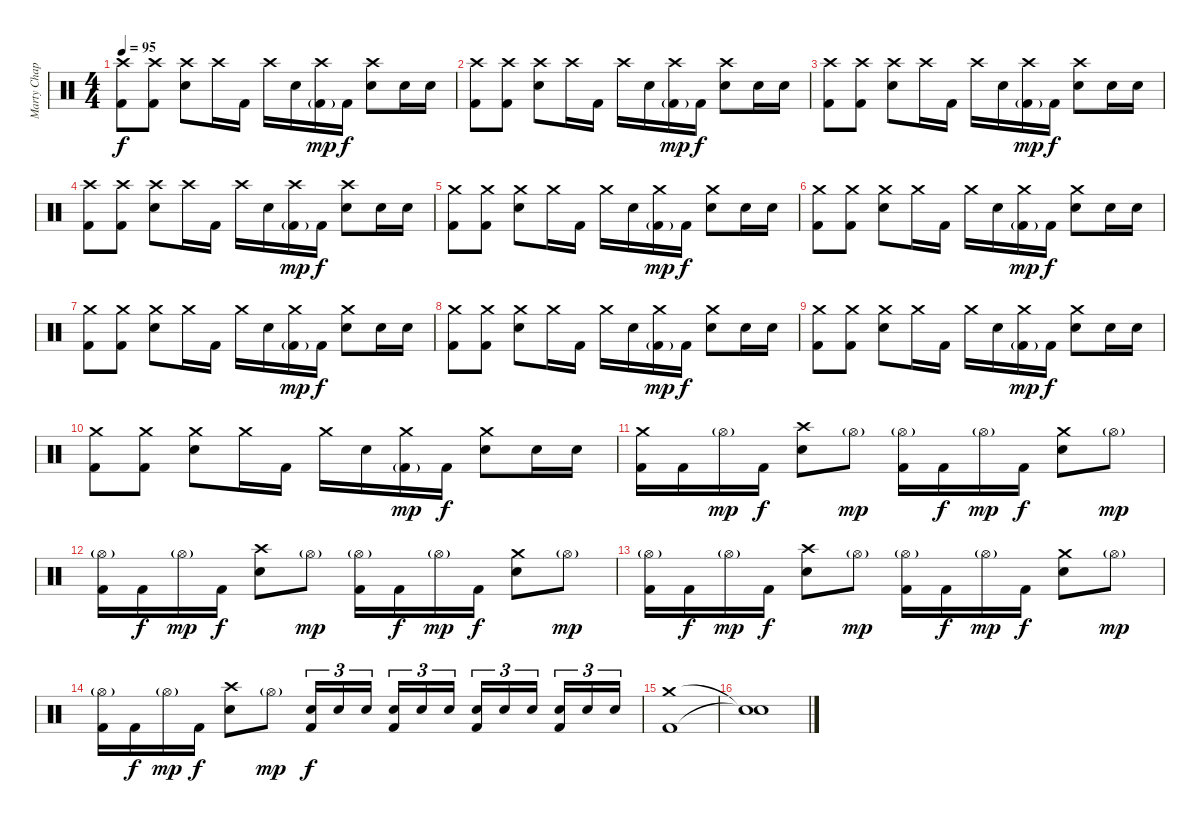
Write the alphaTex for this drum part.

\track ("Marty Chapman (Drums)" "Marty Chap") {instrument percussion}
\staff {score}
\articulation defaults
\ts (4 4)
\tempo 95
\clef neutral
\ks c
("Crash high (hit)" "Kick (hit) 2").8{dy f} ("Crash high (hit)" "Kick (hit) 2").8 ("Crash high (hit)" "Electric Snare (hit)").8 "Crash high (hit)".16 "Kick (hit) 2".16 "Crash high (hit)".16 "Electric Snare (hit)".16 ("Crash high (hit)" "Kick (hit) 2"{g}).16{dy mp} "Kick (hit) 2".16{dy f} ("Crash high (hit)" "Electric Snare (hit)").8 "Electric Snare (hit)".16 "Electric Snare (hit)".16 |
("Crash high (hit)" "Kick (hit) 2").8 ("Crash high (hit)" "Kick (hit) 2").8 ("Crash high (hit)" "Electric Snare (hit)").8 "Crash high (hit)".16 "Kick (hit) 2".16 "Crash high (hit)".16 "Electric Snare (hit)".16 ("Crash high (hit)" "Kick (hit) 2"{g}).16{dy mp} "Kick (hit) 2".16{dy f} ("Crash high (hit)" "Electric Snare (hit)").8 "Electric Snare (hit)".16 "Electric Snare (hit)".16 |
("Crash high (hit)" "Kick (hit) 2").8 ("Crash high (hit)" "Kick (hit) 2").8 ("Crash high (hit)" "Electric Snare (hit)").8 "Crash high (hit)".16 "Kick (hit) 2".16 "Crash high (hit)".16 "Electric Snare (hit)".16 ("Crash high (hit)" "Kick (hit) 2"{g}).16{dy mp} "Kick (hit) 2".16{dy f} ("Crash high (hit)" "Electric Snare (hit)").8 "Electric Snare (hit)".16 "Electric Snare (hit)".16 |
("Crash high (hit)" "Kick (hit) 2").8 ("Crash high (hit)" "Kick (hit) 2").8 ("Crash high (hit)" "Electric Snare (hit)").8 "Crash high (hit)".16 "Kick (hit) 2".16 "Crash high (hit)".16 "Electric Snare (hit)".16 ("Crash high (hit)" "Kick (hit) 2"{g}).16{dy mp} "Kick (hit) 2".16{dy f} ("Crash high (hit)" "Electric Snare (hit)").8 "Electric Snare (hit)".16 "Electric Snare (hit)".16 |
("Crash medium (hit)" "Kick (hit) 2").8 ("Crash medium (hit)" "Kick (hit) 2").8 ("Crash medium (hit)" "Electric Snare (hit)").8 "Crash medium (hit)".16 "Kick (hit) 2".16 "Crash medium (hit)".16 "Electric Snare (hit)".16 ("Crash medium (hit)" "Kick (hit) 2"{g}).16{dy mp} "Kick (hit) 2".16{dy f} ("Crash medium (hit)" "Electric Snare (hit)").8 "Electric Snare (hit)".16 "Electric Snare (hit)".16 |
("Crash medium (hit)" "Kick (hit) 2").8 ("Crash medium (hit)" "Kick (hit) 2").8 ("Crash medium (hit)" "Electric Snare (hit)").8 "Crash medium (hit)".16 "Kick (hit) 2".16 "Crash medium (hit)".16 "Electric Snare (hit)".16 ("Crash medium (hit)" "Kick (hit) 2"{g}).16{dy mp} "Kick (hit) 2".16{dy f} ("Crash medium (hit)" "Electric Snare (hit)").8 "Electric Snare (hit)".16 "Electric Snare (hit)".16 |
("Crash medium (hit)" "Kick (hit) 2").8 ("Crash medium (hit)" "Kick (hit) 2").8 ("Crash medium (hit)" "Electric Snare (hit)").8 "Crash medium (hit)".16 "Kick (hit) 2".16 "Crash medium (hit)".16 "Electric Snare (hit)".16 ("Crash medium (hit)" "Kick (hit) 2"{g}).16{dy mp} "Kick (hit) 2".16{dy f} ("Crash medium (hit)" "Electric Snare (hit)").8 "Electric Snare (hit)".16 "Electric Snare (hit)".16 |
("Crash medium (hit)" "Kick (hit) 2").8 ("Crash medium (hit)" "Kick (hit) 2").8 ("Crash medium (hit)" "Electric Snare (hit)").8 "Crash medium (hit)".16 "Kick (hit) 2".16 "Crash medium (hit)".16 "Electric Snare (hit)".16 ("Crash medium (hit)" "Kick (hit) 2"{g}).16{dy mp} "Kick (hit) 2".16{dy f} ("Crash medium (hit)" "Electric Snare (hit)").8 "Electric Snare (hit)".16 "Electric Snare (hit)".16 |
("Crash medium (hit)" "Kick (hit) 2").8 ("Crash medium (hit)" "Kick (hit) 2").8 ("Crash medium (hit)" "Electric Snare (hit)").8 "Crash medium (hit)".16 "Kick (hit) 2".16 "Crash medium (hit)".16 "Electric Snare (hit)".16 ("Crash medium (hit)" "Kick (hit) 2"{g}).16{dy mp} "Kick (hit) 2".16{dy f} ("Crash medium (hit)" "Electric Snare (hit)").8 "Electric Snare (hit)".16 "Electric Snare (hit)".16 |
("Crash medium (hit)" "Kick (hit) 2").8 ("Crash medium (hit)" "Kick (hit) 2").8 ("Crash medium (hit)" "Electric Snare (hit)").8 "Crash medium (hit)".16 "Kick (hit) 2".16 "Crash medium (hit)".16 "Electric Snare (hit)".16 ("Crash medium (hit)" "Kick (hit) 2"{g}).16{dy mp} "Kick (hit) 2".16{dy f} ("Crash medium (hit)" "Electric Snare (hit)").8 "Electric Snare (hit)".16 "Electric Snare (hit)".16 |
("Crash medium (hit)" "Kick (hit) 2").16 "Kick (hit) 2".16 "Hi-Hat (open)"{g}.16{dy mp} "Kick (hit) 2".16{dy f} ("Crash high (hit)" "Electric Snare (hit)").8 "Hi-Hat (open)"{g}.8{dy mp} ("Hi-Hat (open)"{g} "Kick (hit) 2").16 "Kick (hit) 2".16{dy f} "Hi-Hat (open)"{g}.16{dy mp} "Kick (hit) 2".16{dy f} ("Crash medium (hit)" "Electric Snare (hit)").8 "Hi-Hat (open)"{g}.8{dy mp} |
("Hi-Hat (open)"{g} "Kick (hit) 2").16 "Kick (hit) 2".16{dy f} "Hi-Hat (open)"{g}.16{dy mp} "Kick (hit) 2".16{dy f} ("Crash high (hit)" "Electric Snare (hit)").8 "Hi-Hat (open)"{g}.8{dy mp} ("Hi-Hat (open)"{g} "Kick (hit) 2").16 "Kick (hit) 2".16{dy f} "Hi-Hat (open)"{g}.16{dy mp} "Kick (hit) 2".16{dy f} ("Crash medium (hit)" "Electric Snare (hit)").8 "Hi-Hat (open)"{g}.8{dy mp} |
("Hi-Hat (open)"{g} "Kick (hit) 2").16 "Kick (hit) 2".16{dy f} "Hi-Hat (open)"{g}.16{dy mp} "Kick (hit) 2".16{dy f} ("Crash high (hit)" "Electric Snare (hit)").8 "Hi-Hat (open)"{g}.8{dy mp} ("Hi-Hat (open)"{g} "Kick (hit) 2").16 "Kick (hit) 2".16{dy f} "Hi-Hat (open)"{g}.16{dy mp} "Kick (hit) 2".16{dy f} ("Crash medium (hit)" "Electric Snare (hit)").8 "Hi-Hat (open)"{g}.8{dy mp} |
("Hi-Hat (open)"{g} "Kick (hit) 2").16 "Kick (hit) 2".16{dy f} "Hi-Hat (open)"{g}.16{dy mp} "Kick (hit) 2".16{dy f} ("Crash high (hit)" "Electric Snare (hit)").8 "Hi-Hat (open)"{g}.8{dy mp} ("Electric Snare (hit)" "Kick (hit) 2").16{tu (3 2) dy f} "Electric Snare (hit)".16{tu (3 2)} "Electric Snare (hit)".16{tu (3 2) beam splitsecondary} ("Electric Snare (hit)" "Kick (hit) 2").16{tu (3 2)} "Electric Snare (hit)".16{tu (3 2)} "Electric Snare (hit)".16{tu (3 2)} ("Electric Snare (hit)" "Kick (hit) 2").16{tu (3 2)} "Electric Snare (hit)".16{tu (3 2)} "Electric Snare (hit)".16{tu (3 2) beam splitsecondary} ("Electric Snare (hit)" "Kick (hit) 2").16{tu (3 2)} "Electric Snare (hit)".16{tu (3 2)} "Electric Snare (hit)".16{tu (3 2)} |
("Crash medium (hit)" "Kick (hit) 2").1 |
("Snare (hit)"{t} "Snare (hit)"{t}).1
